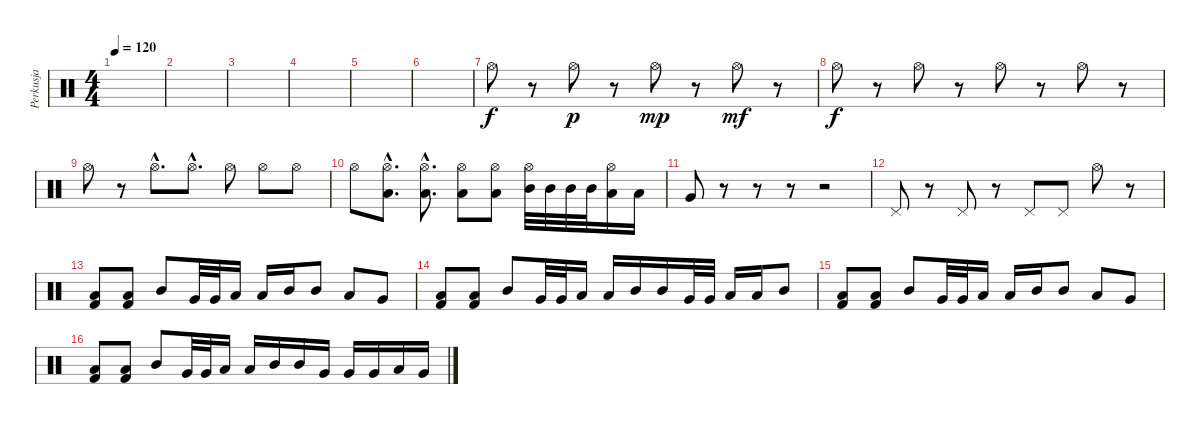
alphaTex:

\track ("Perkusja" "Perkusja") {instrument percussion}
\staff {score}
\articulation defaults
\ts (4 4)
\tempo 120
\clef neutral
\ks c
|
|
|
|
|
|
"Hi-Hat (open)".8 r.8 "Hi-Hat (open)".8{dy p} r.8 "Hi-Hat (open)".8{dy mp} r.8 "Hi-Hat (open)".8{dy mf} r.8 |
"Hi-Hat (open)".8{dy f} r.8 "Hi-Hat (open)".8 r.8 "Hi-Hat (open)".8 r.8 "Hi-Hat (open)".8 r.8 |
"Hi-Hat (open)".8 r.8 "Hi-Hat (open)"{hac}.8{d} "Hi-Hat (open)"{hac}.8{d} "Hi-Hat (open)".8 "Hi-Hat (open)".8 "Hi-Hat (open)".8 |
"Hi-Hat (open)".8 ("Hi-Hat (open)"{hac} "Low Tom (hit)"{hac}).8{d} ("Hi-Hat (open)"{hac} "Low Tom (hit)"{hac}).8{d} ("Hi-Hat (open)" "Low Tom (hit)").8 ("Hi-Hat (open)" "Low Tom (hit)").8 ("Hi-Hat (open)" "Mid Tom (hit)").32 "Mid Tom (hit)".32 "Mid Tom (hit)".32 "Mid Tom (hit)".32 ("Hi-Hat (open)" "Low Tom (hit)").16 "Low Tom (hit)".16 |
"Very Low Tom (hit)".8 r.8 r.8 r.8 r.2 |
"Pedal Hi-Hat (hit)".8 r.8 "Pedal Hi-Hat (hit)".8 r.8 "Pedal Hi-Hat (hit)".8 "Pedal Hi-Hat (hit)".8 "Hi-Hat (open)".8 r.8 |
("Low Tom (hit)" "Kick (hit) 2").8 ("Low Tom (hit)" "Kick (hit) 2").8 "Mid Tom (hit)".8 "Very Low Tom (hit)".32 "Very Low Tom (hit)".32 "Low Tom (hit)".16 "Low Tom (hit)".16 "Mid Tom (hit)".16 "Mid Tom (hit)".8 "Low Tom (hit)".8 "Very Low Tom (hit)".8 |
("Low Tom (hit)" "Kick (hit) 2").8 ("Low Tom (hit)" "Kick (hit) 2").8 "Mid Tom (hit)".8 "Very Low Tom (hit)".32 "Very Low Tom (hit)".32 "Low Tom (hit)".16 "Low Tom (hit)".16 "Mid Tom (hit)".16 "Mid Tom (hit)".16 "Very Low Tom (hit)".32 "Very Low Tom (hit)".32 "Low Tom (hit)".16 "Low Tom (hit)".16 "Mid Tom (hit)".8 |
("Low Tom (hit)" "Kick (hit) 2").8 ("Low Tom (hit)" "Kick (hit) 2").8 "Mid Tom (hit)".8 "Very Low Tom (hit)".32 "Very Low Tom (hit)".32 "Low Tom (hit)".16 "Low Tom (hit)".16 "Mid Tom (hit)".16 "Mid Tom (hit)".8 "Low Tom (hit)".8 "Very Low Tom (hit)".8 |
("Low Tom (hit)" "Kick (hit) 2").8 ("Low Tom (hit)" "Kick (hit) 2").8 "Mid Tom (hit)".8 "Very Low Tom (hit)".32 "Very Low Tom (hit)".32 "Low Tom (hit)".16 "Low Tom (hit)".16 "Mid Tom (hit)".16 "Mid Tom (hit)".16 "Very Low Tom (hit)".16 "Very Low Tom (hit)".16 "Very Low Tom (hit)".16 "Low Tom (hit)".16 "Very Low Tom (hit)".16
